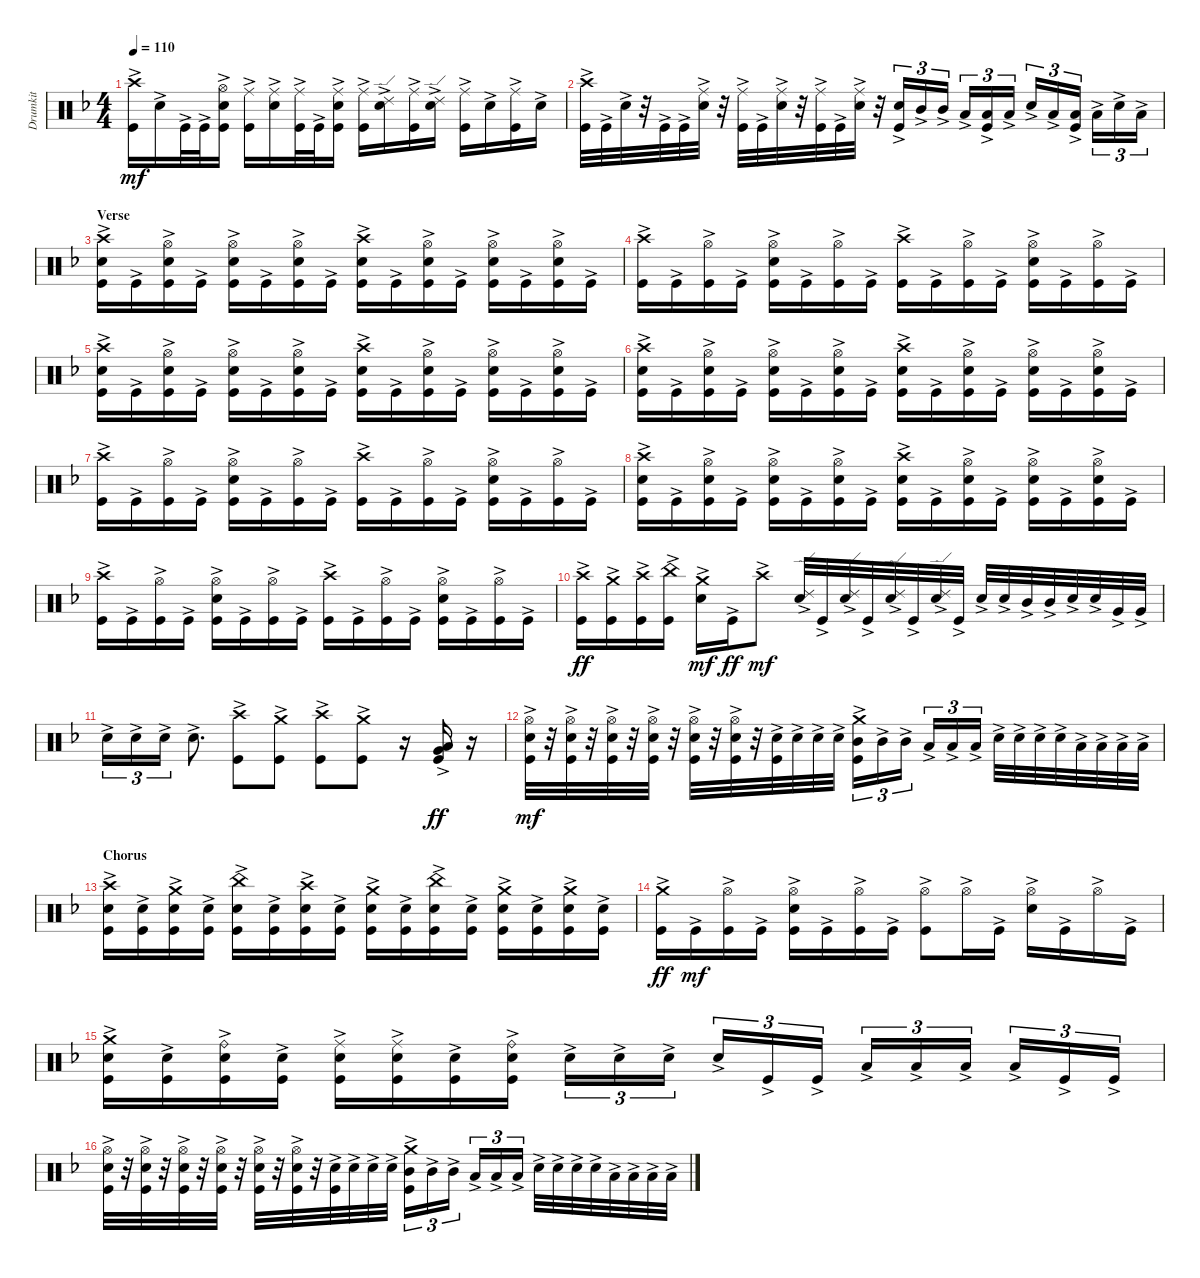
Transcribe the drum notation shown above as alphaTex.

\track ("Drumkit" "Drumkit") {instrument percussion}
\staff {score}
\articulation defaults
\ts (4 4)
\tempo 110
\clef neutral
\ks dminor
("Crash high (hit)"{ac} "Kick (hit)"{ac}).16{dy mf} "Snare (hit) 2"{ac}.16 "Kick (hit)"{ac}.32 "Kick (hit)"{ac}.32 ("Hi-Hat (open)"{ac} "Snare (hit) 2"{ac} "Kick (hit)"{ac}).16 ("Ride (middle)"{ac} "Kick (hit)"{ac}).16 ("Ride (middle)"{ac} "Snare (hit) 2"{ac}).16 ("Ride (middle)"{ac} "Kick (hit)"{ac}).32 "Kick (hit)"{ac}.32 ("Ride (middle)"{ac} "Snare (hit) 2"{ac} "Kick (hit)"{ac}).16 ("Ride (middle)"{ac} "Kick (hit)"{ac}).16 ("Ride (edge) 2"{ac} "Snare (hit) 2"{ac}).16 ("Ride (middle)"{ac} "Kick (hit)"{ac}).16 ("Ride (edge) 2"{ac} "Snare (hit) 2"{ac}).16 ("Ride (middle)"{ac} "Kick (hit)"{ac}).16 "Snare (hit) 2"{ac}.16 ("Ride (middle)"{ac} "Kick (hit)"{ac}).16 "Snare (hit) 2"{ac}.16 |
("Crash high (hit)"{ac} "Kick (hit)"{ac}).32 "Kick (hit)"{ac}.32 "Snare (hit) 2"{ac}.32 r.32 "Kick (hit)"{ac}.32 "Kick (hit)"{ac}.32 ("Ride (middle)"{ac} "Snare (hit) 2"{ac}).32 r.32 ("Ride (middle)"{ac} "Kick (hit)"{ac}).32 "Kick (hit)"{ac}.32 ("Ride (middle)"{ac} "Snare (hit) 2"{ac}).32 r.32 ("Ride (middle)"{ac} "Kick (hit)"{ac}).32 "Kick (hit)"{ac}.32 ("Ride (middle)"{ac} "Snare (hit) 2"{ac}).32 r.32 ("Snare (hit) 2"{ac} "Kick (hit)"{ac}).16{tu (3 2)} "Mid Tom (hit)"{ac}.16{tu (3 2)} "Mid Tom (hit)"{ac}.16{tu (3 2)} "Low Tom (hit)"{ac}.16{tu (3 2)} ("Low Tom (hit)"{ac} "Kick (hit)"{ac}).16{tu (3 2)} "Low Tom (hit)"{ac}.16{tu (3 2)} "Snare (hit) 2"{ac}.16{tu (3 2)} "Low Tom (hit)"{ac}.16{tu (3 2)} ("Low Tom (hit)"{ac} "Kick (hit)"{ac}).16{tu (3 2)} "Low Tom (hit)"{ac}.16{tu (3 2)} "Snare (hit) 2"{ac}.16{tu (3 2)} "Low Tom (hit)"{ac}.16{tu (3 2)} |
\section ("" "Verse")
("Crash high (hit)"{ac} "Snare (hit) 2"{ac} "Kick (hit)"{ac}).16 "Kick (hit)"{ac}.16 ("Hi-Hat (open)"{ac} "Snare (hit) 2"{ac} "Kick (hit)"{ac}).16 "Kick (hit)"{ac}.16 ("Hi-Hat (open)"{ac} "Snare (hit) 2"{ac} "Kick (hit)"{ac}).16 "Kick (hit)"{ac}.16 ("Hi-Hat (open)"{ac} "Snare (hit) 2"{ac} "Kick (hit)"{ac}).16 "Kick (hit)"{ac}.16 ("Crash high (hit)"{ac} "Snare (hit) 2"{ac} "Kick (hit)"{ac}).16 "Kick (hit)"{ac}.16 ("Hi-Hat (open)"{ac} "Snare (hit) 2"{ac} "Kick (hit)"{ac}).16 "Kick (hit)"{ac}.16 ("Hi-Hat (open)"{ac} "Snare (hit) 2"{ac} "Kick (hit)"{ac}).16 "Kick (hit)"{ac}.16 ("Hi-Hat (open)"{ac} "Snare (hit) 2"{ac} "Kick (hit)"{ac}).16 "Kick (hit)"{ac}.16 |
("Crash high (hit)"{ac} "Kick (hit)"{ac}).16 "Kick (hit)"{ac}.16 ("Hi-Hat (open)"{ac} "Kick (hit)"{ac}).16 "Kick (hit)"{ac}.16 ("Hi-Hat (open)"{ac} "Snare (hit) 2"{ac} "Kick (hit)"{ac}).16 "Kick (hit)"{ac}.16 ("Hi-Hat (open)"{ac} "Kick (hit)"{ac}).16 "Kick (hit)"{ac}.16 ("Crash high (hit)"{ac} "Kick (hit)"{ac}).16 "Kick (hit)"{ac}.16 ("Hi-Hat (open)"{ac} "Kick (hit)"{ac}).16 "Kick (hit)"{ac}.16 ("Hi-Hat (open)"{ac} "Snare (hit) 2"{ac} "Kick (hit)"{ac}).16 "Kick (hit)"{ac}.16 ("Hi-Hat (open)"{ac} "Kick (hit)"{ac}).16 "Kick (hit)"{ac}.16 |
("Crash high (hit)"{ac} "Snare (hit) 2"{ac} "Kick (hit)"{ac}).16 "Kick (hit)"{ac}.16 ("Hi-Hat (open)"{ac} "Snare (hit) 2"{ac} "Kick (hit)"{ac}).16 "Kick (hit)"{ac}.16 ("Hi-Hat (open)"{ac} "Snare (hit) 2"{ac} "Kick (hit)"{ac}).16 "Kick (hit)"{ac}.16 ("Hi-Hat (open)"{ac} "Snare (hit) 2"{ac} "Kick (hit)"{ac}).16 "Kick (hit)"{ac}.16 ("Crash high (hit)"{ac} "Snare (hit) 2"{ac} "Kick (hit)"{ac}).16 "Kick (hit)"{ac}.16 ("Hi-Hat (open)"{ac} "Snare (hit) 2"{ac} "Kick (hit)"{ac}).16 "Kick (hit)"{ac}.16 ("Hi-Hat (open)"{ac} "Snare (hit) 2"{ac} "Kick (hit)"{ac}).16 "Kick (hit)"{ac}.16 ("Hi-Hat (open)"{ac} "Snare (hit) 2"{ac} "Kick (hit)"{ac}).16 "Kick (hit)"{ac}.16 |
("Crash high (hit)"{ac} "Snare (hit) 2"{ac} "Kick (hit)"{ac}).16 "Kick (hit)"{ac}.16 ("Hi-Hat (open)"{ac} "Snare (hit) 2"{ac} "Kick (hit)"{ac}).16 "Kick (hit)"{ac}.16 ("Hi-Hat (open)"{ac} "Snare (hit) 2"{ac} "Kick (hit)"{ac}).16 "Kick (hit)"{ac}.16 ("Hi-Hat (open)"{ac} "Snare (hit) 2"{ac} "Kick (hit)"{ac}).16 "Kick (hit)"{ac}.16 ("Crash high (hit)"{ac} "Snare (hit) 2"{ac} "Kick (hit)"{ac}).16 "Kick (hit)"{ac}.16 ("Hi-Hat (open)"{ac} "Snare (hit) 2"{ac} "Kick (hit)"{ac}).16 "Kick (hit)"{ac}.16 ("Hi-Hat (open)"{ac} "Snare (hit) 2"{ac} "Kick (hit)"{ac}).16 "Kick (hit)"{ac}.16 ("Hi-Hat (open)"{ac} "Snare (hit) 2"{ac} "Kick (hit)"{ac}).16 "Kick (hit)"{ac}.16 |
("Crash high (hit)"{ac} "Kick (hit)"{ac}).16 "Kick (hit)"{ac}.16 ("Hi-Hat (open)"{ac} "Kick (hit)"{ac}).16 "Kick (hit)"{ac}.16 ("Hi-Hat (open)"{ac} "Snare (hit) 2"{ac} "Kick (hit)"{ac}).16 "Kick (hit)"{ac}.16 ("Hi-Hat (open)"{ac} "Kick (hit)"{ac}).16 "Kick (hit)"{ac}.16 ("Crash high (hit)"{ac} "Kick (hit)"{ac}).16 "Kick (hit)"{ac}.16 ("Hi-Hat (open)"{ac} "Kick (hit)"{ac}).16 "Kick (hit)"{ac}.16 ("Hi-Hat (open)"{ac} "Snare (hit) 2"{ac} "Kick (hit)"{ac}).16 "Kick (hit)"{ac}.16 ("Hi-Hat (open)"{ac} "Kick (hit)"{ac}).16 "Kick (hit)"{ac}.16 |
("Crash high (hit)"{ac} "Snare (hit) 2"{ac} "Kick (hit)"{ac}).16 "Kick (hit)"{ac}.16 ("Hi-Hat (open)"{ac} "Snare (hit) 2"{ac} "Kick (hit)"{ac}).16 "Kick (hit)"{ac}.16 ("Hi-Hat (open)"{ac} "Snare (hit) 2"{ac} "Kick (hit)"{ac}).16 "Kick (hit)"{ac}.16 ("Hi-Hat (open)"{ac} "Snare (hit) 2"{ac} "Kick (hit)"{ac}).16 "Kick (hit)"{ac}.16 ("Crash high (hit)"{ac} "Snare (hit) 2"{ac} "Kick (hit)"{ac}).16 "Kick (hit)"{ac}.16 ("Hi-Hat (open)"{ac} "Snare (hit) 2"{ac} "Kick (hit)"{ac}).16 "Kick (hit)"{ac}.16 ("Hi-Hat (open)"{ac} "Snare (hit) 2"{ac} "Kick (hit)"{ac}).16 "Kick (hit)"{ac}.16 ("Hi-Hat (open)"{ac} "Snare (hit) 2"{ac} "Kick (hit)"{ac}).16 "Kick (hit)"{ac}.16 |
("Crash high (hit)"{ac} "Kick (hit)"{ac}).16 "Kick (hit)"{ac}.16 ("Hi-Hat (open)"{ac} "Kick (hit)"{ac}).16 "Kick (hit)"{ac}.16 ("Hi-Hat (open)"{ac} "Snare (hit) 2"{ac} "Kick (hit)"{ac}).16 "Kick (hit)"{ac}.16 ("Hi-Hat (open)"{ac} "Kick (hit)"{ac}).16 "Kick (hit)"{ac}.16 ("Crash high (hit)"{ac} "Kick (hit)"{ac}).16 "Kick (hit)"{ac}.16 ("Hi-Hat (open)"{ac} "Kick (hit)"{ac}).16 "Kick (hit)"{ac}.16 ("Hi-Hat (open)"{ac} "Snare (hit) 2"{ac} "Kick (hit)"{ac}).16 "Kick (hit)"{ac}.16 ("Hi-Hat (open)"{ac} "Kick (hit)"{ac}).16 "Kick (hit)"{ac}.16 |
("Crash high (hit)"{ac} "Kick (hit)"{ac}).16{dy ff} ("Crash medium (hit)"{ac} "Kick (hit)"{ac}).16 ("Crash high (hit)"{ac} "Kick (hit)"{ac}).16 ("China (hit)"{ac} "Kick (hit)"{ac}).16 ("Crash medium (hit)"{ac} "Snare (hit) 2"{ac}).16{dy mf} "Kick (hit)"{ac}.16{dy ff} "Crash high (hit)"{ac}.8{dy mf} ("Ride (edge) 2"{ac} "Snare (hit) 2"{ac}).32 "Kick (hit)"{ac}.32 ("Ride (edge) 2"{ac} "Snare (hit) 2"{ac}).32 "Kick (hit)"{ac}.32 ("Ride (edge) 2"{ac} "Snare (hit) 2"{ac}).32 "Kick (hit)"{ac}.32 ("Ride (edge) 2"{ac} "Snare (hit) 2"{ac}).32 "Kick (hit)"{ac}.32 "Snare (hit) 2"{ac}.32 "Snare (hit) 2"{ac}.32 "Mid Tom (hit)"{ac}.32 "Mid Tom (hit)"{ac}.32 "Snare (hit) 2"{ac}.32 "Snare (hit) 2"{ac}.32 "Very Low Tom (hit)"{ac}.32 "Very Low Tom (hit)"{ac}.32 |
"Snare (hit) 2"{ac}.16{tu (3 2)} "Snare (hit) 2"{ac}.16{tu (3 2)} "Snare (hit) 2"{ac}.16{tu (3 2)} "Snare (hit) 2"{ac}.8{d} ("Crash high (hit)"{ac} "Kick (hit)"{ac}).8 ("Crash medium (hit)"{ac} "Kick (hit)"{ac}).8 ("Crash high (hit)"{ac} "Kick (hit)"{ac}).8 ("Crash medium (hit)"{ac} "Kick (hit)"{ac}).8 r.16 ("Low Floor Tom (hit)"{ac} "Very Low Tom (hit)"{ac} "Kick (hit)"{ac}).16{dy ff} r.16 |
("Hi-Hat (open)"{ac} "Snare (hit) 2"{ac} "Kick (hit)"{ac}).32{dy mf} r.32 ("Hi-Hat (open)"{ac} "Snare (hit) 2"{ac} "Kick (hit)"{ac}).32 r.32 ("Hi-Hat (open)"{ac} "Snare (hit) 2"{ac} "Kick (hit)"{ac}).32 r.32 ("Hi-Hat (open)"{ac} "Snare (hit) 2"{ac} "Kick (hit)"{ac}).32 r.32 ("Hi-Hat (open)"{ac} "Snare (hit) 2"{ac} "Kick (hit)"{ac}).32 r.32 ("Hi-Hat (open)"{ac} "Snare (hit) 2"{ac} "Kick (hit)"{ac}).32 r.32 ("Snare (hit) 2"{ac} "Kick (hit)"{ac}).32 "Snare (hit) 2"{ac}.32 "Snare (hit) 2"{ac}.32 "Snare (hit) 2"{ac}.32 ("Crash medium (hit)"{ac} "Mid Tom (hit)"{ac} "Kick (hit)"{ac}).16{tu (3 2)} "Mid Tom (hit)"{ac}.16{tu (3 2)} "Mid Tom (hit)"{ac}.16{tu (3 2)} "Low Tom (hit)"{ac}.16{tu (3 2)} "Low Tom (hit)"{ac}.16{tu (3 2)} "Low Tom (hit)"{ac}.16{tu (3 2)} "Snare (hit) 2"{ac}.32 "Snare (hit) 2"{ac}.32 "Snare (hit) 2"{ac}.32 "Snare (hit) 2"{ac}.32 "Low Tom (hit)"{ac}.32 "Low Tom (hit)"{ac}.32 "Low Tom (hit)"{ac}.32 "Low Tom (hit)"{ac}.32 |
\section ("" "Chorus")
("Crash high (hit)"{ac} "Snare (hit) 2"{ac} "Kick (hit)"{ac}).16 ("Snare (hit) 2"{ac} "Kick (hit)"{ac}).16 ("Crash medium (hit)"{ac} "Snare (hit) 2"{ac} "Kick (hit)"{ac}).16 ("Snare (hit) 2"{ac} "Kick (hit)"{ac}).16 ("China (hit)"{ac} "Snare (hit) 2"{ac} "Kick (hit)"{ac}).16 ("Snare (hit) 2"{ac} "Kick (hit)"{ac}).16 ("Crash high (hit)"{ac} "Snare (hit) 2"{ac} "Kick (hit)"{ac}).16 ("Snare (hit) 2"{ac} "Kick (hit)"{ac}).16 ("Crash medium (hit)"{ac} "Snare (hit) 2"{ac} "Kick (hit)"{ac}).16 ("Snare (hit) 2"{ac} "Kick (hit)"{ac}).16 ("China (hit)"{ac} "Snare (hit) 2"{ac} "Kick (hit)"{ac}).16 ("Snare (hit) 2"{ac} "Kick (hit)"{ac}).16 ("Crash medium (hit)"{ac} "Snare (hit) 2"{ac} "Kick (hit)"{ac}).16 ("Snare (hit) 2"{ac} "Kick (hit)"{ac}).16 ("Crash medium (hit)"{ac} "Snare (hit) 2"{ac} "Kick (hit)"{ac}).16 ("Snare (hit) 2"{ac} "Kick (hit)"{ac}).16 |
("Crash medium (hit)"{ac} "Kick (hit)"{ac}).16{dy ff} "Kick (hit)"{ac}.16{dy mf} ("Hi-Hat (open)"{ac} "Kick (hit)"{ac}).16 "Kick (hit)"{ac}.16 ("Hi-Hat (open)"{ac} "Snare (hit) 2"{ac} "Kick (hit)"{ac}).16 "Kick (hit)"{ac}.16 ("Hi-Hat (open)"{ac} "Kick (hit)"{ac}).16 "Kick (hit)"{ac}.16 ("Hi-Hat (open)"{ac} "Kick (hit)"{ac}).8 "Hi-Hat (open)"{ac}.16 "Kick (hit)"{ac}.16 ("Hi-Hat (open)"{ac} "Snare (hit) 2"{ac}).16 "Kick (hit)"{ac}.16 "Hi-Hat (open)"{ac}.16 "Kick (hit)"{ac}.16 |
("Crash medium (hit)"{ac} "Snare (hit) 2"{ac} "Kick (hit)"{ac}).16 ("Snare (hit) 2"{ac} "Kick (hit)"{ac}).16 ("Ride (bell)"{ac} "Snare (hit) 2"{ac} "Kick (hit)"{ac}).16 ("Snare (hit) 2"{ac} "Kick (hit)"{ac}).16 ("Ride (middle)"{ac} "Snare (hit) 2"{ac} "Kick (hit)"{ac}).16 ("Ride (middle)"{ac} "Snare (hit) 2"{ac} "Kick (hit)"{ac}).16 ("Snare (hit) 2"{ac} "Kick (hit)"{ac}).16 ("Ride (bell)"{ac} "Snare (hit) 2"{ac} "Kick (hit)"{ac}).16 "Snare (hit) 2"{ac}.16{tu (3 2)} "Snare (hit) 2"{ac}.16{tu (3 2)} "Snare (hit) 2"{ac}.16{tu (3 2)} "Snare (hit) 2"{ac}.16{tu (3 2)} "Kick (hit)"{ac}.16{tu (3 2)} "Kick (hit)"{ac}.16{tu (3 2)} "Low Floor Tom (hit)"{ac}.16{tu (3 2)} "Low Floor Tom (hit)"{ac}.16{tu (3 2)} "Low Floor Tom (hit)"{ac}.16{tu (3 2)} "Low Floor Tom (hit)"{ac}.16{tu (3 2)} "Kick (hit)"{ac}.16{tu (3 2)} "Kick (hit)"{ac}.16{tu (3 2)} |
("Hi-Hat (open)"{ac} "Snare (hit) 2"{ac} "Kick (hit)"{ac}).32 r.32 ("Hi-Hat (open)"{ac} "Snare (hit) 2"{ac} "Kick (hit)"{ac}).32 r.32 ("Hi-Hat (open)"{ac} "Snare (hit) 2"{ac} "Kick (hit)"{ac}).32 r.32 ("Hi-Hat (open)"{ac} "Snare (hit) 2"{ac} "Kick (hit)"{ac}).32 r.32 ("Hi-Hat (open)"{ac} "Snare (hit) 2"{ac} "Kick (hit)"{ac}).32 r.32 ("Hi-Hat (open)"{ac} "Snare (hit) 2"{ac} "Kick (hit)"{ac}).32 r.32 ("Snare (hit) 2"{ac} "Kick (hit)"{ac}).32 "Snare (hit) 2"{ac}.32 "Snare (hit) 2"{ac}.32 "Snare (hit) 2"{ac}.32 ("Crash medium (hit)"{ac} "Mid Tom (hit)"{ac} "Kick (hit)"{ac}).16{tu (3 2)} "Mid Tom (hit)"{ac}.16{tu (3 2)} "Mid Tom (hit)"{ac}.16{tu (3 2)} "Low Tom (hit)"{ac}.16{tu (3 2)} "Low Tom (hit)"{ac}.16{tu (3 2)} "Low Tom (hit)"{ac}.16{tu (3 2)} "Snare (hit) 2"{ac}.32 "Snare (hit) 2"{ac}.32 "Snare (hit) 2"{ac}.32 "Snare (hit) 2"{ac}.32 "Low Tom (hit)"{ac}.32 "Low Tom (hit)"{ac}.32 "Low Tom (hit)"{ac}.32 "Low Tom (hit)"{ac}.32
